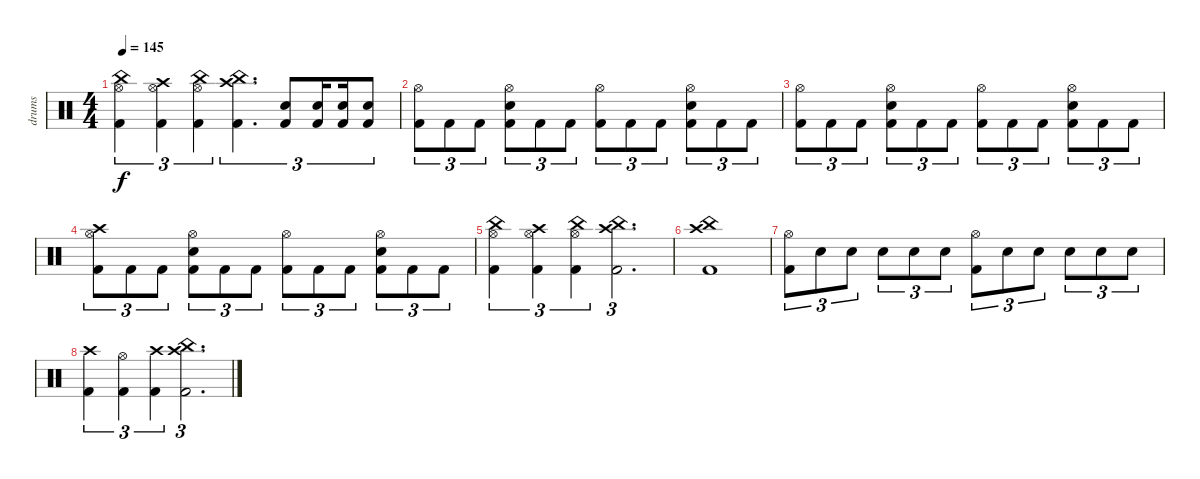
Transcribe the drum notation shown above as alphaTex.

\track ("drums" "drums") {instrument percussion}
\staff {score}
\articulation defaults
\ts (4 4)
\tempo 145
\clef neutral
\ks c
("China (hit)" "Hi-Hat (open)" "Kick (hit) 2").4{tu (3 2) dy f} ("Crash high (hit)" "Hi-Hat (open)" "Kick (hit) 2").4{tu (3 2)} ("China (hit)" "Hi-Hat (open)" "Kick (hit) 2").4{tu (3 2)} ("China (hit)" "Crash high (hit)" "Kick (hit) 2").4{d tu (3 2)} ("Snare (hit) 2" "Kick (hit) 2").8{tu (3 2)} ("Snare (hit) 2" "Kick (hit) 2").16{tu (3 2) beam splitsecondary} ("Snare (hit) 2" "Kick (hit) 2").16{tu (3 2)} ("Snare (hit) 2" "Kick (hit) 2").8{tu (3 2)} |
("Hi-Hat (open)" "Kick (hit) 2").8{tu (3 2)} "Kick (hit) 2".8{tu (3 2)} "Kick (hit) 2".8{tu (3 2)} ("Snare (hit) 2" "Hi-Hat (open)" "Kick (hit) 2").8{tu (3 2)} "Kick (hit) 2".8{tu (3 2)} "Kick (hit) 2".8{tu (3 2)} ("Hi-Hat (open)" "Kick (hit) 2").8{tu (3 2)} "Kick (hit) 2".8{tu (3 2)} "Kick (hit) 2".8{tu (3 2)} ("Snare (hit) 2" "Hi-Hat (open)" "Kick (hit) 2").8{tu (3 2)} "Kick (hit) 2".8{tu (3 2)} "Kick (hit) 2".8{tu (3 2)} |
("Hi-Hat (open)" "Kick (hit) 2").8{tu (3 2)} "Kick (hit) 2".8{tu (3 2)} "Kick (hit) 2".8{tu (3 2)} ("Snare (hit) 2" "Hi-Hat (open)" "Kick (hit) 2").8{tu (3 2)} "Kick (hit) 2".8{tu (3 2)} "Kick (hit) 2".8{tu (3 2)} ("Hi-Hat (open)" "Kick (hit) 2").8{tu (3 2)} "Kick (hit) 2".8{tu (3 2)} "Kick (hit) 2".8{tu (3 2)} ("Snare (hit) 2" "Hi-Hat (open)" "Kick (hit) 2").8{tu (3 2)} "Kick (hit) 2".8{tu (3 2)} "Kick (hit) 2".8{tu (3 2)} |
("Crash high (hit)" "Hi-Hat (open)" "Kick (hit) 2").8{tu (3 2)} "Kick (hit) 2".8{tu (3 2)} "Kick (hit) 2".8{tu (3 2)} ("Snare (hit) 2" "Hi-Hat (open)" "Kick (hit) 2").8{tu (3 2)} "Kick (hit) 2".8{tu (3 2)} "Kick (hit) 2".8{tu (3 2)} ("Hi-Hat (open)" "Kick (hit) 2").8{tu (3 2)} "Kick (hit) 2".8{tu (3 2)} "Kick (hit) 2".8{tu (3 2)} ("Snare (hit) 2" "Hi-Hat (open)" "Kick (hit) 2").8{tu (3 2)} "Kick (hit) 2".8{tu (3 2)} "Kick (hit) 2".8{tu (3 2)} |
("China (hit)" "Hi-Hat (open)" "Kick (hit) 2").4{tu (3 2)} ("Crash high (hit)" "Hi-Hat (open)" "Kick (hit) 2").4{tu (3 2)} ("China (hit)" "Hi-Hat (open)" "Kick (hit) 2").4{tu (3 2)} ("China (hit)" "Crash high (hit)" "Kick (hit) 2").2{d tu (3 2)} |
("China (hit)" "Crash high (hit)" "Kick (hit) 2").1 |
("Hi-Hat (open)" "Kick (hit) 2").8{tu (3 2)} "Snare (hit) 2".8{tu (3 2)} "Snare (hit) 2".8{tu (3 2)} "Snare (hit) 2".8{tu (3 2)} "Snare (hit) 2".8{tu (3 2)} "Snare (hit) 2".8{tu (3 2)} ("Hi-Hat (open)" "Kick (hit) 2").8{tu (3 2)} "Snare (hit) 2".8{tu (3 2)} "Snare (hit) 2".8{tu (3 2)} "Snare (hit) 2".8{tu (3 2)} "Snare (hit) 2".8{tu (3 2)} "Snare (hit) 2".8{tu (3 2)} |
("Crash high (hit)" "Kick (hit) 2").4{tu (3 2)} ("Hi-Hat (open)" "Kick (hit) 2").4{tu (3 2)} ("Crash high (hit)" "Kick (hit) 2").4{tu (3 2)} ("China (hit)" "Crash high (hit)" "Kick (hit) 2").2{d tu (3 2)}
